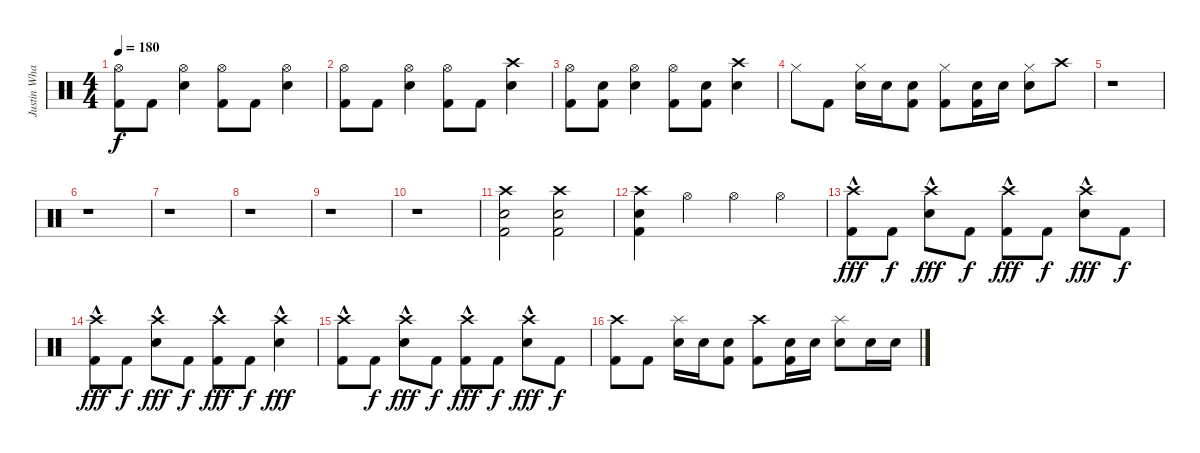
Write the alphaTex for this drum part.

\track ("Justin Wharton" "Justin Wha") {instrument percussion}
\staff {score}
\articulation defaults
\ts (4 4)
\tempo 180
\clef neutral
\ks c
("Kick (hit) 2" "Hi-Hat (open)").8{dy f} "Kick (hit) 2".8 ("Electric Snare (hit)" "Hi-Hat (open)").4 ("Kick (hit) 2" "Hi-Hat (open)").8 "Kick (hit) 2".8 ("Electric Snare (hit)" "Hi-Hat (open)").4 |
("Kick (hit) 2" "Hi-Hat (open)").8 "Kick (hit) 2".8 ("Electric Snare (hit)" "Hi-Hat (open)").4 ("Kick (hit) 2" "Hi-Hat (open)").8 "Kick (hit) 2".8 ("Electric Snare (hit)" "Crash high (hit)").4 |
("Kick (hit) 2" "Hi-Hat (open)").8 ("Kick (hit) 2" "Electric Snare (hit)").8 ("Electric Snare (hit)" "Hi-Hat (open)").4 ("Kick (hit) 2" "Hi-Hat (open)").8 ("Kick (hit) 2" "Electric Snare (hit)").8 ("Electric Snare (hit)" "Crash high (hit)").4 |
"Hi-Hat (closed)".8 "Kick (hit) 2".8 ("Electric Snare (hit)" "Hi-Hat (closed)").16 "Electric Snare (hit)".16 ("Kick (hit) 2" "Electric Snare (hit)").8 ("Kick (hit) 2" "Hi-Hat (closed)").8 ("Kick (hit) 2" "Electric Snare (hit)").16 "Electric Snare (hit)".16 ("Electric Snare (hit)" "Hi-Hat (closed)").8 "Crash high (hit)".8 |
r.1 |
r.1 |
r.1 |
r.1 |
r.1 |
r.1 |
("Kick (hit) 2" "Electric Snare (hit)" "Crash high (hit)").2 ("Kick (hit) 2" "Electric Snare (hit)" "Crash high (hit)").2 |
("Kick (hit) 2" "Electric Snare (hit)" "Crash high (hit)").4 "Hi-Hat (open)".4 "Hi-Hat (open)".4 "Hi-Hat (open)".4 |
("Kick (hit) 2" "Crash high (hit)"{hac}).8{dy fff} "Kick (hit) 2".8{dy f} ("Electric Snare (hit)" "Crash high (hit)"{hac}).8{dy fff} "Kick (hit) 2".8{dy f} ("Kick (hit) 2" "Crash high (hit)"{hac}).8{dy fff} "Kick (hit) 2".8{dy f} ("Electric Snare (hit)" "Crash high (hit)"{hac}).8{dy fff} "Kick (hit) 2".8{dy f} |
("Kick (hit) 2" "Crash high (hit)"{hac}).8{dy fff} "Kick (hit) 2".8{dy f} ("Electric Snare (hit)" "Crash high (hit)"{hac}).8{dy fff} "Kick (hit) 2".8{dy f} ("Kick (hit) 2" "Crash high (hit)"{hac}).8{dy fff} "Kick (hit) 2".8{dy f} ("Electric Snare (hit)" "Crash high (hit)"{hac}).4{dy fff} |
("Kick (hit) 2" "Crash high (hit)"{hac}).8 "Kick (hit) 2".8{dy f} ("Electric Snare (hit)" "Crash high (hit)"{hac}).8{dy fff} "Kick (hit) 2".8{dy f} ("Kick (hit) 2" "Crash high (hit)"{hac}).8{dy fff} "Kick (hit) 2".8{dy f} ("Electric Snare (hit)" "Crash high (hit)"{hac}).8{dy fff} "Kick (hit) 2".8{dy f} |
("Kick (hit) 2" "Crash high (hit)").8 "Kick (hit) 2".8 ("Electric Snare (hit)" "Splash (hit)").16 "Electric Snare (hit)".16 ("Kick (hit) 2" "Electric Snare (hit)").8 ("Kick (hit) 2" "Crash high (hit)").8 ("Kick (hit) 2" "Electric Snare (hit)").16 "Electric Snare (hit)".16 ("Electric Snare (hit)" "Splash (hit)").8 "Electric Snare (hit)".16 "Electric Snare (hit)".16
